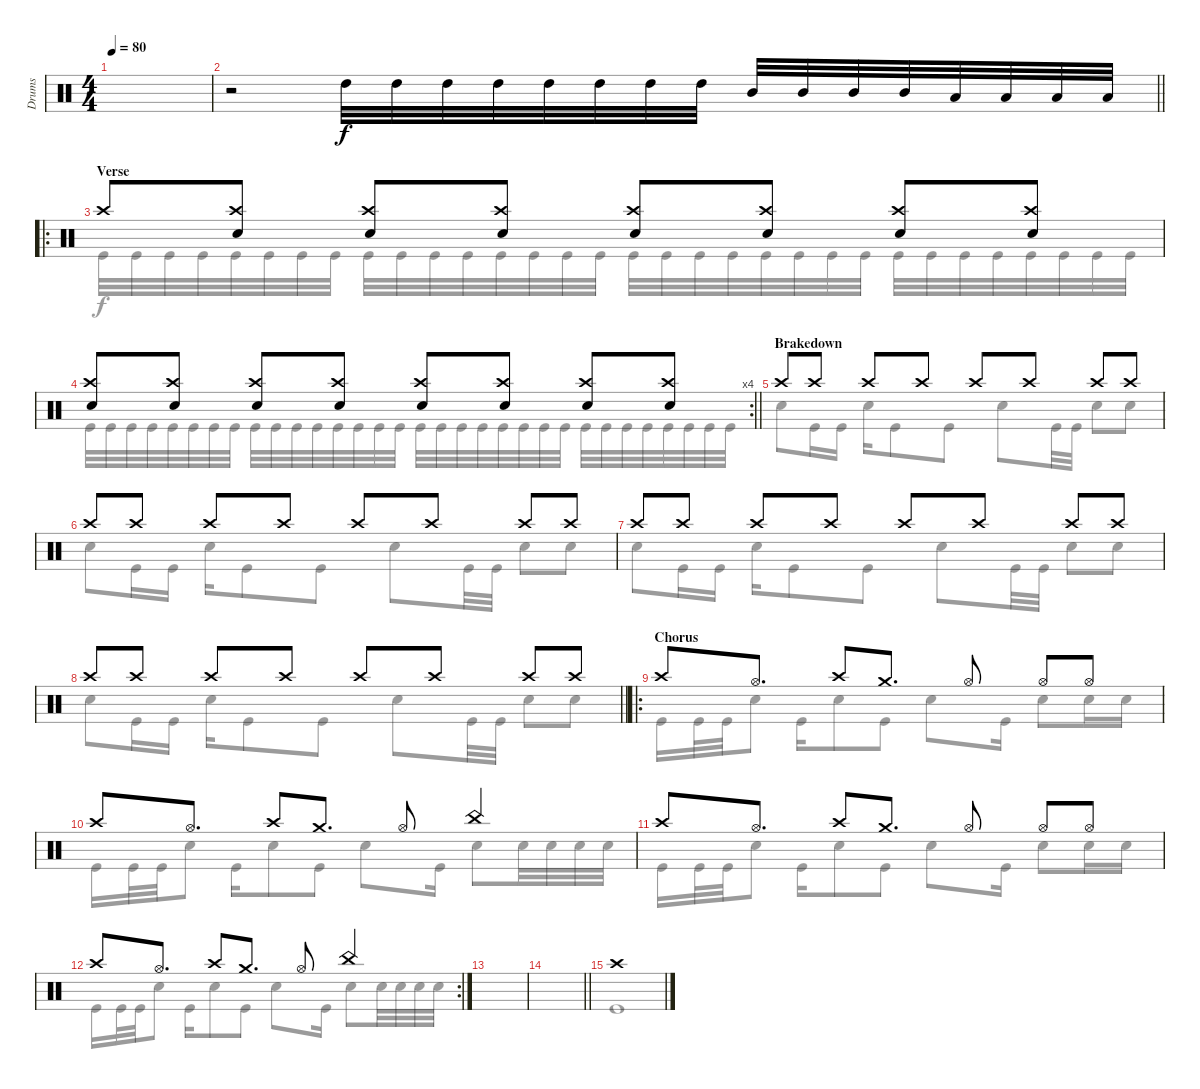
\track ("Drums" "Drums") {instrument percussion}
\staff {score}
\articulation defaults
\voice
\ts (4 4)
\tempo 80
\clef neutral
\ks c
|
\barLineRight lightlight
r.2 "High Tom (hit)".32 "High Tom (hit)".32 "High Tom (hit)".32 "High Tom (hit)".32 "High Tom (hit)".32 "High Tom (hit)".32 "High Tom (hit)".32 "High Tom (hit)".32 "Mid Tom (hit)".32 "Mid Tom (hit)".32 "Mid Tom (hit)".32 "Mid Tom (hit)".32 "Low Tom (hit)".32 "Low Tom (hit)".32 "Low Tom (hit)".32 "Low Tom (hit)".32 |
\ro
\section ("" "Verse")
"Crash high (hit)".8 ("Snare (hit) 2" "Crash high (hit)").8 ("Snare (hit) 2" "Crash high (hit)").8 ("Snare (hit) 2" "Crash high (hit)").8 ("Snare (hit) 2" "Crash high (hit)").8 ("Snare (hit) 2" "Crash high (hit)").8 ("Snare (hit) 2" "Crash high (hit)").8 ("Snare (hit) 2" "Crash high (hit)").8 |
\rc 4
\barLineRight lightlight
("Snare (hit) 2" "Crash high (hit)").8 ("Snare (hit) 2" "Crash high (hit)").8 ("Snare (hit) 2" "Crash high (hit)").8 ("Snare (hit) 2" "Crash high (hit)").8 ("Snare (hit) 2" "Crash high (hit)").8 ("Snare (hit) 2" "Crash high (hit)").8 ("Snare (hit) 2" "Crash high (hit)").8 ("Snare (hit) 2" "Crash high (hit)").8 |
\section ("" "Brakedown")
"Crash high (hit)".8 "Crash high (hit)".8 "Crash high (hit)".8 "Crash high (hit)".8 "Crash high (hit)".8 "Crash high (hit)".8 "Crash high (hit)".8 "Crash high (hit)".8 |
"Crash high (hit)".8 "Crash high (hit)".8 "Crash high (hit)".8 "Crash high (hit)".8 "Crash high (hit)".8 "Crash high (hit)".8 "Crash high (hit)".8 "Crash high (hit)".8 |
"Crash high (hit)".8 "Crash high (hit)".8 "Crash high (hit)".8 "Crash high (hit)".8 "Crash high (hit)".8 "Crash high (hit)".8 "Crash high (hit)".8 "Crash high (hit)".8 |
\barLineRight lightlight "Crash high (hit)".8 "Crash high (hit)".8 "Crash high (hit)".8 "Crash high (hit)".8 "Crash high (hit)".8 "Crash high (hit)".8 "Crash high (hit)".8 "Crash high (hit)".8
|
\ro
\section ("" "Chorus")
"Crash high (hit)".8 "Hi-Hat (open)".8{d} "Crash high (hit)".8 "Crash medium (hit)".8{d} "Hi-Hat (open)".8 "Hi-Hat (open)".8 "Hi-Hat (open)".8 |
"Crash high (hit)".8 "Hi-Hat (open)".8{d} "Crash high (hit)".8 "Crash medium (hit)".8{d} "Hi-Hat (open)".8 "China (hit)".4 |
"Crash high (hit)".8 "Hi-Hat (open)".8{d} "Crash high (hit)".8 "Crash medium (hit)".8{d} "Hi-Hat (open)".8 "Hi-Hat (open)".8 "Hi-Hat (open)".8 |
\rc 2 "Crash high (hit)".8 "Hi-Hat (open)".8{d} "Crash high (hit)".8 "Crash medium (hit)".8{d} "Hi-Hat (open)".8 "China (hit)".4
|
|
\barLineRight lightlight
|
"Crash high (hit)".1 |
\voice
\clef neutral
\ottava regular
\simile none
\ks c
|
\barLineRight lightlight
|
"Kick (hit)".32 "Kick (hit)".32 "Kick (hit)".32 "Kick (hit)".32 "Kick (hit)".32 "Kick (hit)".32 "Kick (hit)".32 "Kick (hit)".32 "Kick (hit)".32 "Kick (hit)".32 "Kick (hit)".32 "Kick (hit)".32 "Kick (hit)".32 "Kick (hit)".32 "Kick (hit)".32 "Kick (hit)".32 "Kick (hit)".32 "Kick (hit)".32 "Kick (hit)".32 "Kick (hit)".32 "Kick (hit)".32 "Kick (hit)".32 "Kick (hit)".32 "Kick (hit)".32 "Kick (hit)".32 "Kick (hit)".32 "Kick (hit)".32 "Kick (hit)".32 "Kick (hit)".32 "Kick (hit)".32 "Kick (hit)".32 "Kick (hit)".32 |
\barLineRight lightlight "Kick (hit)".32 "Kick (hit)".32 "Kick (hit)".32 "Kick (hit)".32 "Kick (hit)".32 "Kick (hit)".32 "Kick (hit)".32 "Kick (hit)".32 "Kick (hit)".32 "Kick (hit)".32 "Kick (hit)".32 "Kick (hit)".32 "Kick (hit)".32 "Kick (hit)".32 "Kick (hit)".32 "Kick (hit)".32 "Kick (hit)".32 "Kick (hit)".32 "Kick (hit)".32 "Kick (hit)".32 "Kick (hit)".32 "Kick (hit)".32 "Kick (hit)".32 "Kick (hit)".32 "Kick (hit)".32 "Kick (hit)".32 "Kick (hit)".32 "Kick (hit)".32 "Kick (hit)".32 "Kick (hit)".32 "Kick (hit)".32 "Kick (hit)".32
|
"Snare (hit) 2".8 "Kick (hit)".16 "Kick (hit)".16 "Snare (hit) 2".16 "Kick (hit)".8 "Kick (hit)".8 "Snare (hit) 2".8 "Kick (hit)".32 "Kick (hit)".32 "Snare (hit) 2".8 "Snare (hit) 2".8 |
"Snare (hit) 2".8 "Kick (hit)".16 "Kick (hit)".16 "Snare (hit) 2".16 "Kick (hit)".8 "Kick (hit)".8 "Snare (hit) 2".8 "Kick (hit)".32 "Kick (hit)".32 "Snare (hit) 2".8 "Snare (hit) 2".8 |
"Snare (hit) 2".8 "Kick (hit)".16 "Kick (hit)".16 "Snare (hit) 2".16 "Kick (hit)".8 "Kick (hit)".8 "Snare (hit) 2".8 "Kick (hit)".32 "Kick (hit)".32 "Snare (hit) 2".8 "Snare (hit) 2".8 |
\barLineRight lightlight "Snare (hit) 2".8 "Kick (hit)".16 "Kick (hit)".16 "Snare (hit) 2".16 "Kick (hit)".8 "Kick (hit)".8 "Snare (hit) 2".8 "Kick (hit)".32 "Kick (hit)".32 "Snare (hit) 2".8 "Snare (hit) 2".8
|
"Kick (hit)".16 "Kick (hit)".32 "Kick (hit)".32 "Snare (hit) 2".8 "Kick (hit)".16 "Snare (hit) 2".8 "Kick (hit)".8 "Snare (hit) 2".8 "Kick (hit)".16 "Snare (hit) 2".8 "Snare (hit) 2".16 "Snare (hit) 2".16 |
"Kick (hit)".16 "Kick (hit)".32 "Kick (hit)".32 "Snare (hit) 2".8 "Kick (hit)".16 "Snare (hit) 2".8 "Kick (hit)".8 "Snare (hit) 2".8 "Kick (hit)".16 "Snare (hit) 2".8 "Snare (hit) 2".32 "Snare (hit) 2".32 "Snare (hit) 2".32 "Snare (hit) 2".32 |
"Kick (hit)".16 "Kick (hit)".32 "Kick (hit)".32 "Snare (hit) 2".8 "Kick (hit)".16 "Snare (hit) 2".8 "Kick (hit)".8 "Snare (hit) 2".8 "Kick (hit)".16 "Snare (hit) 2".8 "Snare (hit) 2".16 "Snare (hit) 2".16 |
"Kick (hit)".16 "Kick (hit)".32 "Kick (hit)".32 "Snare (hit) 2".8 "Kick (hit)".16 "Snare (hit) 2".8 "Kick (hit)".8 "Snare (hit) 2".8 "Kick (hit)".16 "Snare (hit) 2".8 "Snare (hit) 2".32 "Snare (hit) 2".32 "Snare (hit) 2".32 "Snare (hit) 2".32 |
|
\barLineRight lightlight
|
"Kick (hit)".1 |
